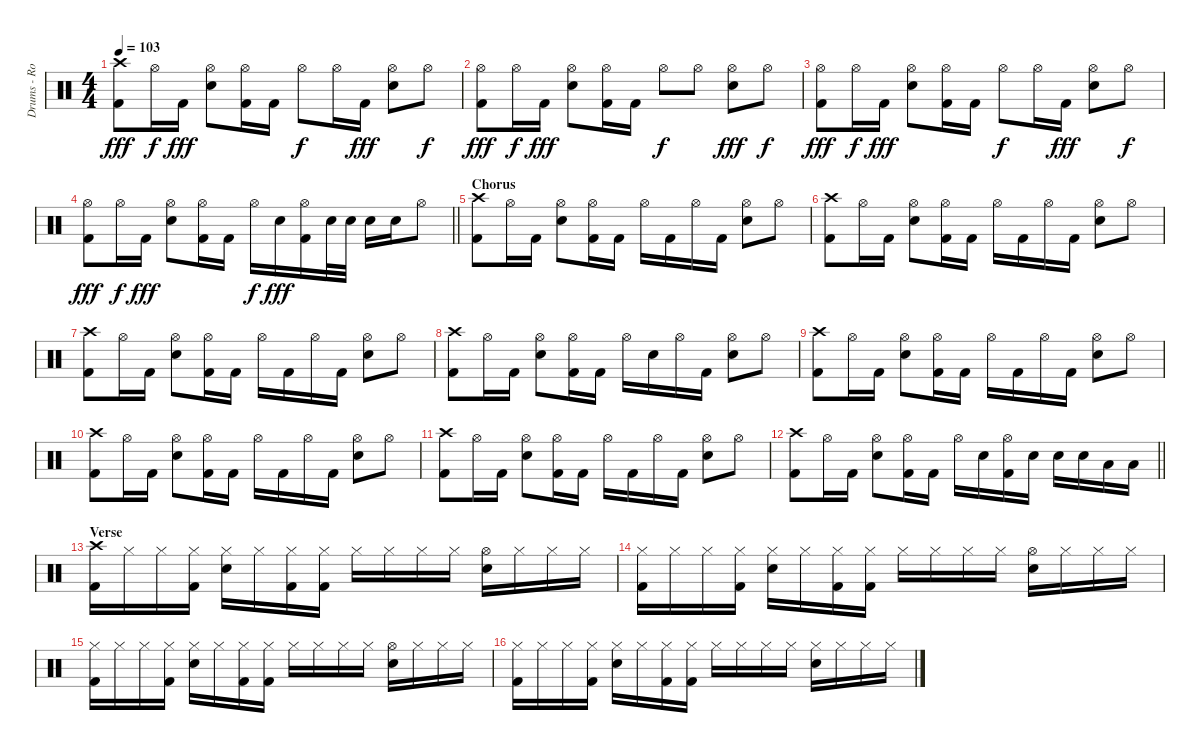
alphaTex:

\track ("Drums - Rob Bourdon" "Drums - Ro") {instrument percussion}
\staff {score}
\articulation defaults
\ts (4 4)
\tempo 103
\clef neutral
\ks c
("Crash high (hit)" "Kick (hit) 2").8{dy fff} "Hi-Hat (open)".16{dy f} "Kick (hit) 2".16{dy fff} ("Hi-Hat (open)" "Snare (hit) 2").8 ("Hi-Hat (open)" "Kick (hit) 2").16 "Kick (hit) 2".16 "Hi-Hat (open)".8{dy f} "Hi-Hat (open)".16 "Kick (hit) 2".16{dy fff} ("Hi-Hat (open)" "Snare (hit) 2").8 "Hi-Hat (open)".8{dy f} |
("Hi-Hat (open)" "Kick (hit) 2").8{dy fff} "Hi-Hat (open)".16{dy f} "Kick (hit) 2".16{dy fff} ("Hi-Hat (open)" "Snare (hit) 2").8 ("Hi-Hat (open)" "Kick (hit) 2").16 "Kick (hit) 2".16 "Hi-Hat (open)".8{dy f} "Hi-Hat (open)".8 ("Hi-Hat (open)" "Snare (hit) 2").8{dy fff} "Hi-Hat (open)".8{dy f} |
("Hi-Hat (open)" "Kick (hit) 2").8{dy fff} "Hi-Hat (open)".16{dy f} "Kick (hit) 2".16{dy fff} ("Hi-Hat (open)" "Snare (hit) 2").8 ("Hi-Hat (open)" "Kick (hit) 2").16 "Kick (hit) 2".16 "Hi-Hat (open)".8{dy f} "Hi-Hat (open)".16 "Kick (hit) 2".16{dy fff} ("Hi-Hat (open)" "Snare (hit) 2").8 "Hi-Hat (open)".8{dy f} |
\barLineRight lightlight
("Hi-Hat (open)" "Kick (hit) 2").8{dy fff} "Hi-Hat (open)".16{dy f} "Kick (hit) 2".16{dy fff} ("Hi-Hat (open)" "Snare (hit) 2").8 ("Hi-Hat (open)" "Kick (hit) 2").16 "Kick (hit) 2".16 "Hi-Hat (open)".16{dy f} "Snare (hit) 2".16{dy fff} ("Hi-Hat (open)" "Kick (hit) 2").16 "Snare (hit) 2".32 "Snare (hit) 2".32 "Snare (hit) 2".16 "Snare (hit) 2".16 "Hi-Hat (open)".8 |
\section ("" "Chorus")
("Crash high (hit)" "Kick (hit) 2").8 "Hi-Hat (open)".16 "Kick (hit) 2".16 ("Hi-Hat (open)" "Snare (hit) 2").8 ("Hi-Hat (open)" "Kick (hit) 2").16 "Kick (hit) 2".16 "Hi-Hat (open)".16 "Kick (hit) 2".16 "Hi-Hat (open)".16 "Kick (hit) 2".16 ("Hi-Hat (open)" "Snare (hit) 2").8 "Hi-Hat (open)".8 |
("Crash high (hit)" "Kick (hit) 2").8 "Hi-Hat (open)".16 "Kick (hit) 2".16 ("Hi-Hat (open)" "Snare (hit) 2").8 ("Hi-Hat (open)" "Kick (hit) 2").16 "Kick (hit) 2".16 "Hi-Hat (open)".16 "Kick (hit) 2".16 "Hi-Hat (open)".16 "Kick (hit) 2".16 ("Hi-Hat (open)" "Snare (hit) 2").8 "Hi-Hat (open)".8 |
("Crash high (hit)" "Kick (hit) 2").8 "Hi-Hat (open)".16 "Kick (hit) 2".16 ("Hi-Hat (open)" "Snare (hit) 2").8 ("Hi-Hat (open)" "Kick (hit) 2").16 "Kick (hit) 2".16 "Hi-Hat (open)".16 "Kick (hit) 2".16 "Hi-Hat (open)".16 "Kick (hit) 2".16 ("Hi-Hat (open)" "Snare (hit) 2").8 "Hi-Hat (open)".8 |
("Crash high (hit)" "Kick (hit) 2").8 "Hi-Hat (open)".16 "Kick (hit) 2".16 ("Hi-Hat (open)" "Snare (hit) 2").8 ("Hi-Hat (open)" "Kick (hit) 2").16 "Kick (hit) 2".16 "Hi-Hat (open)".16 "Snare (hit) 2".16 "Hi-Hat (open)".16 "Kick (hit) 2".16 ("Hi-Hat (open)" "Snare (hit) 2").8 "Hi-Hat (open)".8 |
("Crash high (hit)" "Kick (hit) 2").8 "Hi-Hat (open)".16 "Kick (hit) 2".16 ("Hi-Hat (open)" "Snare (hit) 2").8 ("Hi-Hat (open)" "Kick (hit) 2").16 "Kick (hit) 2".16 "Hi-Hat (open)".16 "Kick (hit) 2".16 "Hi-Hat (open)".16 "Kick (hit) 2".16 ("Hi-Hat (open)" "Snare (hit) 2").8 "Hi-Hat (open)".8 |
("Crash high (hit)" "Kick (hit) 2").8 "Hi-Hat (open)".16 "Kick (hit) 2".16 ("Hi-Hat (open)" "Snare (hit) 2").8 ("Hi-Hat (open)" "Kick (hit) 2").16 "Kick (hit) 2".16 "Hi-Hat (open)".16 "Kick (hit) 2".16 "Hi-Hat (open)".16 "Kick (hit) 2".16 ("Hi-Hat (open)" "Snare (hit) 2").8 "Hi-Hat (open)".8 |
("Crash high (hit)" "Kick (hit) 2").8 "Hi-Hat (open)".16 "Kick (hit) 2".16 ("Hi-Hat (open)" "Snare (hit) 2").8 ("Hi-Hat (open)" "Kick (hit) 2").16 "Kick (hit) 2".16 "Hi-Hat (open)".16 "Kick (hit) 2".16 "Hi-Hat (open)".16 "Kick (hit) 2".16 ("Hi-Hat (open)" "Snare (hit) 2").8 "Hi-Hat (open)".8 |
\barLineRight lightlight
("Crash high (hit)" "Kick (hit) 2").8 "Hi-Hat (open)".16 "Kick (hit) 2".16 ("Hi-Hat (open)" "Snare (hit) 2").8 ("Hi-Hat (open)" "Kick (hit) 2").16 "Kick (hit) 2".16 "Hi-Hat (open)".16 "Snare (hit) 2".16 ("Hi-Hat (open)" "Kick (hit) 2").16 "Snare (hit) 2".16 "Snare (hit) 2".16 "Snare (hit) 2".16 "Low Tom (hit)".16 "Low Tom (hit)".16 |
\section ("" "Verse")
("Crash high (hit)" "Kick (hit) 2").16 "Hi-Hat (closed)".16 "Hi-Hat (closed)".16 ("Hi-Hat (closed)" "Kick (hit) 2").16 ("Hi-Hat (closed)" "Snare (hit) 2").16 "Hi-Hat (closed)".16 ("Hi-Hat (closed)" "Kick (hit) 2").16 ("Hi-Hat (closed)" "Kick (hit) 2").16 "Hi-Hat (closed)".16 "Hi-Hat (closed)".16 "Hi-Hat (closed)".16 "Hi-Hat (closed)".16 ("Hi-Hat (open)" "Snare (hit) 2").16 "Hi-Hat (closed)".16 "Hi-Hat (closed)".16 "Hi-Hat (closed)".16 |
("Hi-Hat (closed)" "Kick (hit) 2").16 "Hi-Hat (closed)".16 "Hi-Hat (closed)".16 ("Hi-Hat (closed)" "Kick (hit) 2").16 ("Hi-Hat (closed)" "Snare (hit) 2").16 "Hi-Hat (closed)".16 ("Hi-Hat (closed)" "Kick (hit) 2").16 ("Hi-Hat (closed)" "Kick (hit) 2").16 "Hi-Hat (closed)".16 "Hi-Hat (closed)".16 "Hi-Hat (closed)".16 "Hi-Hat (closed)".16 ("Hi-Hat (open)" "Snare (hit) 2").16 "Hi-Hat (closed)".16 "Hi-Hat (closed)".16 "Hi-Hat (closed)".16 |
("Hi-Hat (closed)" "Kick (hit) 2").16 "Hi-Hat (closed)".16 "Hi-Hat (closed)".16 ("Hi-Hat (closed)" "Kick (hit) 2").16 ("Hi-Hat (closed)" "Snare (hit) 2").16 "Hi-Hat (closed)".16 ("Hi-Hat (closed)" "Kick (hit) 2").16 ("Hi-Hat (closed)" "Kick (hit) 2").16 "Hi-Hat (closed)".16 "Hi-Hat (closed)".16 "Hi-Hat (closed)".16 "Hi-Hat (closed)".16 ("Hi-Hat (open)" "Snare (hit) 2").16 "Hi-Hat (closed)".16 "Hi-Hat (closed)".16 "Hi-Hat (closed)".16 |
("Hi-Hat (closed)" "Kick (hit) 2").16 "Hi-Hat (closed)".16 "Hi-Hat (closed)".16 ("Hi-Hat (closed)" "Kick (hit) 2").16 ("Hi-Hat (closed)" "Snare (hit) 2").16 "Hi-Hat (closed)".16 ("Hi-Hat (closed)" "Kick (hit) 2").16 ("Hi-Hat (closed)" "Kick (hit) 2").16 "Hi-Hat (closed)".16 "Hi-Hat (closed)".16 "Hi-Hat (closed)".16 "Hi-Hat (closed)".16 ("Hi-Hat (closed)" "Snare (hit) 2").16 "Hi-Hat (closed)".16 "Hi-Hat (closed)".16 "Hi-Hat (closed)".16
